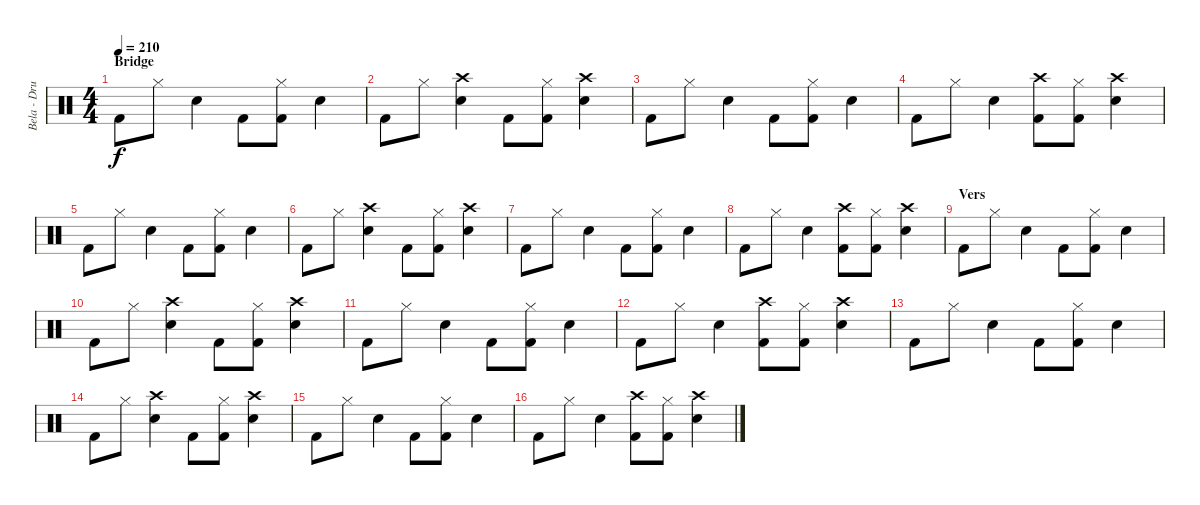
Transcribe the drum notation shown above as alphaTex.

\track ("Bela - Drums" "Bela - Dru") {instrument percussion}
\staff {score}
\articulation defaults
\ts (4 4)
\section ("" "Bridge")
\tempo 210
\clef neutral
\ks c "Kick (hit) 2".8{dy f} "Hi-Hat (closed)".8 "Electric Snare (hit)".4 "Kick (hit) 2".8
("Hi-Hat (closed)" "Kick (hit) 2").8 "Electric Snare (hit)".4 |
"Kick (hit) 2".8 "Hi-Hat (closed)".8 ("Crash high (hit)" "Electric Snare (hit)").4 "Kick (hit) 2".8 ("Hi-Hat (closed)" "Kick (hit) 2").8 ("Crash high (hit)" "Electric Snare (hit)").4 |
"Kick (hit) 2".8 "Hi-Hat (closed)".8 "Electric Snare (hit)".4 "Kick (hit) 2".8 ("Hi-Hat (closed)" "Kick (hit) 2").8 "Electric Snare (hit)".4 |
"Kick (hit) 2".8 "Hi-Hat (closed)".8 "Electric Snare (hit)".4 ("Crash high (hit)" "Kick (hit) 2").8 ("Hi-Hat (closed)" "Kick (hit) 2").8 ("Crash high (hit)" "Electric Snare (hit)").4 |
"Kick (hit) 2".8 "Hi-Hat (closed)".8 "Electric Snare (hit)".4 "Kick (hit) 2".8 ("Hi-Hat (closed)" "Kick (hit) 2").8 "Electric Snare (hit)".4 |
"Kick (hit) 2".8 "Hi-Hat (closed)".8 ("Crash high (hit)" "Electric Snare (hit)").4 "Kick (hit) 2".8 ("Hi-Hat (closed)" "Kick (hit) 2").8 ("Crash high (hit)" "Electric Snare (hit)").4 |
"Kick (hit) 2".8 "Hi-Hat (closed)".8 "Electric Snare (hit)".4 "Kick (hit) 2".8 ("Hi-Hat (closed)" "Kick (hit) 2").8 "Electric Snare (hit)".4 |
"Kick (hit) 2".8 "Hi-Hat (closed)".8 "Electric Snare (hit)".4 ("Crash high (hit)" "Kick (hit) 2").8 ("Hi-Hat (closed)" "Kick (hit) 2").8 ("Crash high (hit)" "Electric Snare (hit)").4 |
\section ("" "Vers")
"Kick (hit) 2".8 "Hi-Hat (closed)".8 "Electric Snare (hit)".4 "Kick (hit) 2".8 ("Hi-Hat (closed)" "Kick (hit) 2").8 "Electric Snare (hit)".4 |
"Kick (hit) 2".8 "Hi-Hat (closed)".8 ("Crash high (hit)" "Electric Snare (hit)").4 "Kick (hit) 2".8 ("Hi-Hat (closed)" "Kick (hit) 2").8 ("Crash high (hit)" "Electric Snare (hit)").4 |
"Kick (hit) 2".8 "Hi-Hat (closed)".8 "Electric Snare (hit)".4 "Kick (hit) 2".8 ("Hi-Hat (closed)" "Kick (hit) 2").8 "Electric Snare (hit)".4 |
"Kick (hit) 2".8 "Hi-Hat (closed)".8 "Electric Snare (hit)".4 ("Crash high (hit)" "Kick (hit) 2").8 ("Hi-Hat (closed)" "Kick (hit) 2").8 ("Crash high (hit)" "Electric Snare (hit)").4 |
"Kick (hit) 2".8 "Hi-Hat (closed)".8 "Electric Snare (hit)".4 "Kick (hit) 2".8 ("Hi-Hat (closed)" "Kick (hit) 2").8 "Electric Snare (hit)".4 |
"Kick (hit) 2".8 "Hi-Hat (closed)".8 ("Crash high (hit)" "Electric Snare (hit)").4 "Kick (hit) 2".8 ("Hi-Hat (closed)" "Kick (hit) 2").8 ("Crash high (hit)" "Electric Snare (hit)").4 |
"Kick (hit) 2".8 "Hi-Hat (closed)".8 "Electric Snare (hit)".4 "Kick (hit) 2".8 ("Hi-Hat (closed)" "Kick (hit) 2").8 "Electric Snare (hit)".4 |
"Kick (hit) 2".8 "Hi-Hat (closed)".8 "Electric Snare (hit)".4 ("Crash high (hit)" "Kick (hit) 2").8 ("Hi-Hat (closed)" "Kick (hit) 2").8 ("Crash high (hit)" "Electric Snare (hit)").4
